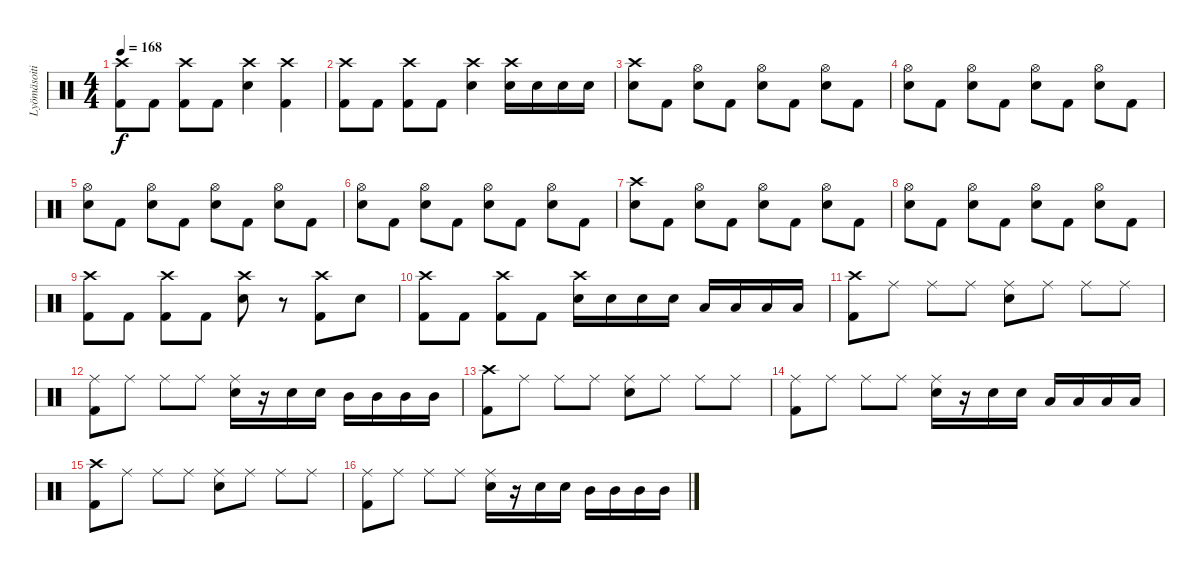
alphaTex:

\track ("Lyömäsoitin" "Lyömäsoiti") {instrument percussion}
\staff {score}
\articulation defaults
\ts (4 4)
\tempo 168
\clef neutral
\ks c
("Kick (hit) 2" "Crash high (hit)").8{dy f} "Kick (hit) 2".8 ("Kick (hit) 2" "Crash high (hit)").8 "Kick (hit) 2".8 ("Electric Snare (hit)" "Crash high (hit)").4 ("Kick (hit) 2" "Crash high (hit)").4 |
("Kick (hit) 2" "Crash high (hit)").8 "Kick (hit) 2".8 ("Kick (hit) 2" "Crash high (hit)").8 "Kick (hit) 2".8 ("Electric Snare (hit)" "Crash high (hit)").4 ("Electric Snare (hit)" "Crash high (hit)").16 "Electric Snare (hit)".16 "Electric Snare (hit)".16 "Electric Snare (hit)".16 |
("Electric Snare (hit)" "Crash high (hit)").8 "Kick (hit) 2".8 ("Electric Snare (hit)" "Hi-Hat (open)").8 "Kick (hit) 2".8 ("Electric Snare (hit)" "Hi-Hat (open)").8 "Kick (hit) 2".8 ("Electric Snare (hit)" "Hi-Hat (open)").8 "Kick (hit) 2".8 |
("Electric Snare (hit)" "Hi-Hat (open)").8 "Kick (hit) 2".8 ("Electric Snare (hit)" "Hi-Hat (open)").8 "Kick (hit) 2".8 ("Electric Snare (hit)" "Hi-Hat (open)").8 "Kick (hit) 2".8 ("Electric Snare (hit)" "Hi-Hat (open)").8 "Kick (hit) 2".8 |
("Electric Snare (hit)" "Hi-Hat (open)").8 "Kick (hit) 2".8 ("Electric Snare (hit)" "Hi-Hat (open)").8 "Kick (hit) 2".8 ("Electric Snare (hit)" "Hi-Hat (open)").8 "Kick (hit) 2".8 ("Electric Snare (hit)" "Hi-Hat (open)").8 "Kick (hit) 2".8 |
("Electric Snare (hit)" "Hi-Hat (open)").8 "Kick (hit) 2".8 ("Electric Snare (hit)" "Hi-Hat (open)").8 "Kick (hit) 2".8 ("Electric Snare (hit)" "Hi-Hat (open)").8 "Kick (hit) 2".8 ("Electric Snare (hit)" "Hi-Hat (open)").8 "Kick (hit) 2".8 |
("Electric Snare (hit)" "Crash high (hit)").8 "Kick (hit) 2".8 ("Electric Snare (hit)" "Hi-Hat (open)").8 "Kick (hit) 2".8 ("Electric Snare (hit)" "Hi-Hat (open)").8 "Kick (hit) 2".8 ("Electric Snare (hit)" "Hi-Hat (open)").8 "Kick (hit) 2".8 |
("Electric Snare (hit)" "Hi-Hat (open)").8 "Kick (hit) 2".8 ("Electric Snare (hit)" "Hi-Hat (open)").8 "Kick (hit) 2".8 ("Electric Snare (hit)" "Hi-Hat (open)").8 "Kick (hit) 2".8 ("Electric Snare (hit)" "Hi-Hat (open)").8 "Kick (hit) 2".8 |
("Kick (hit) 2" "Crash high (hit)").8 "Kick (hit) 2".8 ("Kick (hit) 2" "Crash high (hit)").8 "Kick (hit) 2".8 ("Electric Snare (hit)" "Crash high (hit)").8 r.8 ("Kick (hit) 2" "Crash high (hit)").8 "Electric Snare (hit)".8 |
("Kick (hit) 2" "Crash high (hit)").8 "Kick (hit) 2".8 ("Kick (hit) 2" "Crash high (hit)").8 "Kick (hit) 2".8 ("Electric Snare (hit)" "Crash high (hit)").16 "Electric Snare (hit)".16 "Electric Snare (hit)".16 "Electric Snare (hit)".16 "Low Tom (hit)".16 "Low Tom (hit)".16 "Low Tom (hit)".16 "Low Tom (hit)".16 |
("Kick (hit) 2" "Crash high (hit)").8 "Ride (middle)".8 "Ride (middle)".8 "Ride (middle)".8 ("Electric Snare (hit)" "Ride (middle)").8 "Ride (middle)".8 "Ride (middle)".8 "Ride (middle)".8 |
("Kick (hit) 2" "Ride (middle)").8 "Ride (middle)".8 "Ride (middle)".8 "Ride (middle)".8 ("Electric Snare (hit)" "Ride (middle)").16 r.16 "Electric Snare (hit)".16 "Electric Snare (hit)".16 "Mid Tom (hit)".16 "Mid Tom (hit)".16 "Mid Tom (hit)".16 "Mid Tom (hit)".16 |
("Kick (hit) 2" "Crash high (hit)").8 "Ride (middle)".8 "Ride (middle)".8 "Ride (middle)".8 ("Electric Snare (hit)" "Ride (middle)").8 "Ride (middle)".8 "Ride (middle)".8 "Ride (middle)".8 |
("Kick (hit) 2" "Ride (middle)").8 "Ride (middle)".8 "Ride (middle)".8 "Ride (middle)".8 ("Electric Snare (hit)" "Ride (middle)").16 r.16 "Electric Snare (hit)".16 "Electric Snare (hit)".16 "Low Tom (hit)".16 "Low Tom (hit)".16 "Low Tom (hit)".16 "Low Tom (hit)".16 |
("Kick (hit) 2" "Crash high (hit)").8 "Ride (middle)".8 "Ride (middle)".8 "Ride (middle)".8 ("Electric Snare (hit)" "Ride (middle)").8 "Ride (middle)".8 "Ride (middle)".8 "Ride (middle)".8 |
("Kick (hit) 2" "Ride (middle)").8 "Ride (middle)".8 "Ride (middle)".8 "Ride (middle)".8 ("Electric Snare (hit)" "Ride (middle)").16 r.16 "Electric Snare (hit)".16 "Electric Snare (hit)".16 "Mid Tom (hit)".16 "Mid Tom (hit)".16 "Mid Tom (hit)".16 "Mid Tom (hit)".16
